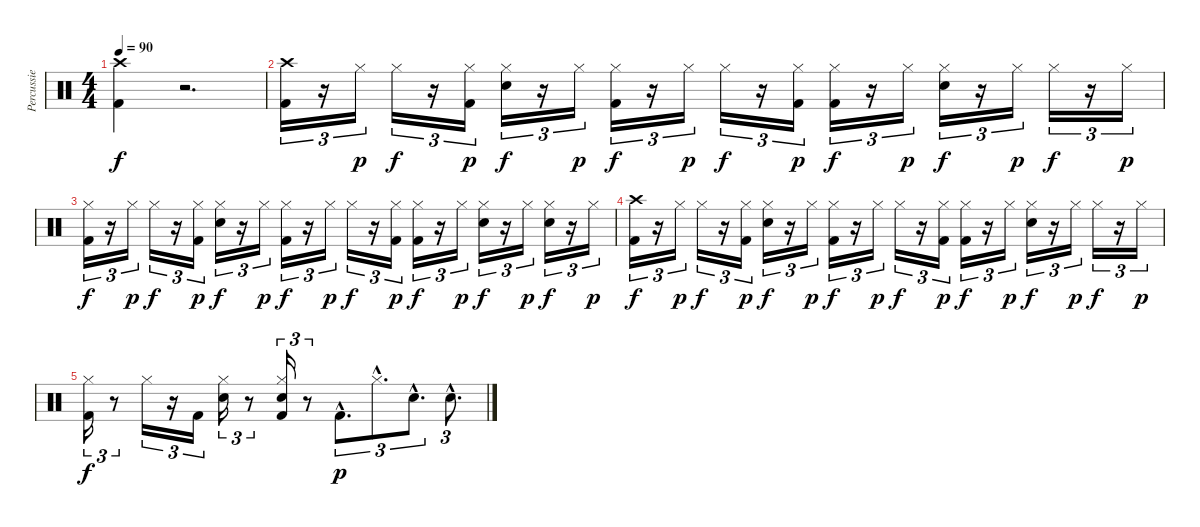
\track ("Percussie" "Percussie") {instrument percussion}
\staff {score}
\articulation defaults
\ts (4 4)
\tempo 90
\clef neutral
\ks c
("Crash high (hit)" "Kick (hit) 2").4{dy f} r.2{d} |
("Crash high (hit)" "Kick (hit) 2").16{tu (3 2)} r.16{tu (3 2)} "Hi-Hat (closed)".16{tu (3 2) dy p} "Hi-Hat (closed)".16{tu (3 2) dy f} r.16{tu (3 2)} ("Hi-Hat (closed)" "Kick (hit) 2").16{tu (3 2) dy p} ("Hi-Hat (closed)" "Electric Snare (hit)").16{tu (3 2) dy f} r.16{tu (3 2)} "Hi-Hat (closed)".16{tu (3 2) dy p} ("Hi-Hat (closed)" "Kick (hit) 2").16{tu (3 2) dy f} r.16{tu (3 2)} "Hi-Hat (closed)".16{tu (3 2) dy p} "Hi-Hat (closed)".16{tu (3 2) dy f} r.16{tu (3 2)} ("Hi-Hat (closed)" "Kick (hit) 2").16{tu (3 2) dy p} ("Hi-Hat (closed)" "Kick (hit) 2").16{tu (3 2) dy f} r.16{tu (3 2)} "Hi-Hat (closed)".16{tu (3 2) dy p} ("Hi-Hat (closed)" "Electric Snare (hit)").16{tu (3 2) dy f} r.16{tu (3 2)} "Hi-Hat (closed)".16{tu (3 2) dy p} "Hi-Hat (closed)".16{tu (3 2) dy f} r.16{tu (3 2)} "Hi-Hat (closed)".16{tu (3 2) dy p} |
("Hi-Hat (closed)" "Kick (hit) 2").16{tu (3 2) dy f} r.16{tu (3 2)} "Hi-Hat (closed)".16{tu (3 2) dy p} "Hi-Hat (closed)".16{tu (3 2) dy f} r.16{tu (3 2)} ("Hi-Hat (closed)" "Kick (hit) 2").16{tu (3 2) dy p} ("Hi-Hat (closed)" "Electric Snare (hit)").16{tu (3 2) dy f} r.16{tu (3 2)} "Hi-Hat (closed)".16{tu (3 2) dy p} ("Hi-Hat (closed)" "Kick (hit) 2").16{tu (3 2) dy f} r.16{tu (3 2)} "Hi-Hat (closed)".16{tu (3 2) dy p} "Hi-Hat (closed)".16{tu (3 2) dy f} r.16{tu (3 2)} ("Hi-Hat (closed)" "Kick (hit) 2").16{tu (3 2) dy p} ("Hi-Hat (closed)" "Kick (hit) 2").16{tu (3 2) dy f} r.16{tu (3 2)} "Hi-Hat (closed)".16{tu (3 2) dy p} ("Hi-Hat (closed)" "Electric Snare (hit)").16{tu (3 2) dy f} r.16{tu (3 2)} "Hi-Hat (closed)".16{tu (3 2) dy p} ("Hi-Hat (closed)" "Electric Snare (hit)").16{tu (3 2) dy f} r.16{tu (3 2)} "Hi-Hat (closed)".16{tu (3 2) dy p} |
("Crash high (hit)" "Kick (hit) 2").16{tu (3 2) dy f} r.16{tu (3 2)} "Hi-Hat (closed)".16{tu (3 2) dy p} "Hi-Hat (closed)".16{tu (3 2) dy f} r.16{tu (3 2)} ("Hi-Hat (closed)" "Kick (hit) 2").16{tu (3 2) dy p} ("Hi-Hat (closed)" "Electric Snare (hit)").16{tu (3 2) dy f} r.16{tu (3 2)} "Hi-Hat (closed)".16{tu (3 2) dy p} ("Hi-Hat (closed)" "Kick (hit) 2").16{tu (3 2) dy f} r.16{tu (3 2)} "Hi-Hat (closed)".16{tu (3 2) dy p} "Hi-Hat (closed)".16{tu (3 2) dy f} r.16{tu (3 2)} ("Hi-Hat (closed)" "Kick (hit) 2").16{tu (3 2) dy p} ("Hi-Hat (closed)" "Kick (hit) 2").16{tu (3 2) dy f} r.16{tu (3 2)} "Hi-Hat (closed)".16{tu (3 2) dy p} ("Hi-Hat (closed)" "Electric Snare (hit)").16{tu (3 2) dy f} r.16{tu (3 2)} "Hi-Hat (closed)".16{tu (3 2) dy p} "Hi-Hat (closed)".16{tu (3 2) dy f} r.16{tu (3 2)} "Hi-Hat (closed)".16{tu (3 2) dy p} |
("Hi-Hat (closed)" "Kick (hit) 2").16{tu (3 2) dy f} r.8{tu (3 2)} "Hi-Hat (closed)".16{tu (3 2)} r.16{tu (3 2)} "Kick (hit) 2".16{tu (3 2)} ("Hi-Hat (closed)" "Electric Snare (hit)").16{tu (3 2)} r.8{tu (3 2)} ("Hi-Hat (closed)" "Electric Snare (hit)" "Kick (hit) 2").16{tu (3 2)} r.8{tu (3 2)} "Kick (hit) 2"{hac}.8{d tu (3 2) dy p} "Hi-Hat (closed)"{hac}.8{d tu (3 2)} "Electric Snare (hit)"{hac}.8{d tu (3 2)} "Electric Snare (hit)"{hac}.8{d tu (3 2)}
